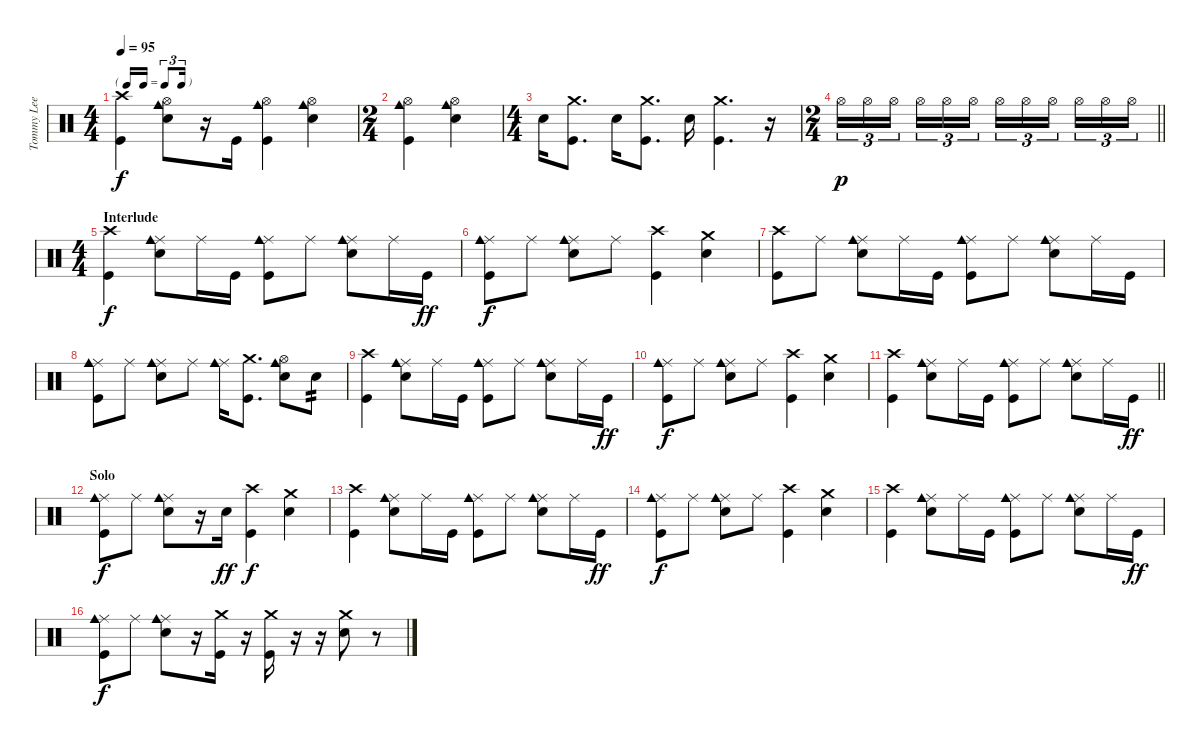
\track ("Tommy Lee" "Tommy Lee") {instrument percussion}
\staff {score}
\articulation defaults
\ts (4 4)
\tf triplet16th
\tempo 95
\clef neutral
\ks c
("Crash high (hit)" "Kick (hit)").4{dy f} ("Hi-Hat (open)" "Cowbell medium (hit)" "Snare (hit) 2").8 r.16 "Kick (hit)".16 ("Hi-Hat (open)" "Cowbell medium (hit)" "Kick (hit)").4 ("Hi-Hat (open)" "Cowbell medium (hit)" "Snare (hit) 2").4 |
\ts (2 4)
("Hi-Hat (open)" "Cowbell medium (hit)" "Kick (hit)").4 ("Hi-Hat (open)" "Cowbell medium (hit)" "Snare (hit) 2").4 |
\ts (4 4)
"Snare (hit) 2".16 ("Crash medium (hit)" "Kick (hit)").8{d} "Snare (hit) 2".16 ("Crash medium (hit)" "Kick (hit)").8{d} "Snare (hit) 2".16 ("Crash medium (hit)" "Kick (hit)").4{d} r.16 |
\ts (2 4)
\barLineRight lightlight "Hi-Hat (open)".16{tu (3 2) dy p} "Hi-Hat (open)".16{tu (3 2)} "Hi-Hat (open)".16{tu (3 2)} "Hi-Hat (open)".16{tu (3 2)} "Hi-Hat (open)".16{tu (3 2)} "Hi-Hat (open)".16{tu (3 2)} "Hi-Hat (open)".16{tu (3 2)} "Hi-Hat (open)".16{tu (3 2)} "Hi-Hat (open)".16{tu (3 2)} "Hi-Hat (open)".16{tu (3 2)} "Hi-Hat (open)".16{tu (3 2)} "Hi-Hat (open)".16{tu (3 2)}
|
\ts (4 4)
\section ("" "Interlude")
("Crash high (hit)" "Kick (hit)").4{dy f} ("Ride (middle)" "Cowbell medium (hit)" "Snare (hit) 2").8 "Ride (middle)".16 "Kick (hit)".16 ("Ride (middle)" "Cowbell medium (hit)" "Kick (hit)").8 "Ride (middle)".8 ("Ride (middle)" "Cowbell medium (hit)" "Snare (hit) 2").8 "Ride (middle)".16 "Kick (hit)".16{dy ff} |
("Ride (middle)" "Cowbell medium (hit)" "Kick (hit)").8{dy f} "Ride (middle)".8 ("Ride (middle)" "Cowbell medium (hit)" "Snare (hit) 2").8 "Ride (middle)".8 ("Crash high (hit)" "Kick (hit)").4 ("Crash medium (hit)" "Snare (hit) 2").4 |
("Crash high (hit)" "Kick (hit)").8 "Ride (middle)".8 ("Ride (middle)" "Cowbell medium (hit)" "Snare (hit) 2").8 "Ride (middle)".16 "Kick (hit)".16 ("Ride (middle)" "Cowbell medium (hit)" "Kick (hit)").8 "Ride (middle)".8 ("Ride (middle)" "Cowbell medium (hit)" "Snare (hit) 2").8 "Ride (middle)".16 "Kick (hit)".16 |
("Ride (middle)" "Cowbell medium (hit)" "Kick (hit)").8 "Ride (middle)".8 ("Ride (middle)" "Cowbell medium (hit)" "Snare (hit) 2").8 "Ride (middle)".8 ("Ride (middle)" "Cowbell medium (hit)").16 ("Crash medium (hit)" "Kick (hit)").8{d} ("Hi-Hat (open)" "Cowbell medium (hit)" "Snare (hit) 2").8 "Snare (hit) 2".8{tp 2} |
("Crash high (hit)" "Kick (hit)").4 ("Ride (middle)" "Cowbell medium (hit)" "Snare (hit) 2").8 "Ride (middle)".16 "Kick (hit)".16 ("Ride (middle)" "Cowbell medium (hit)" "Kick (hit)").8 "Ride (middle)".8 ("Ride (middle)" "Cowbell medium (hit)" "Snare (hit) 2").8 "Ride (middle)".16 "Kick (hit)".16{dy ff} |
("Ride (middle)" "Cowbell medium (hit)" "Kick (hit)").8{dy f} "Ride (middle)".8 ("Ride (middle)" "Cowbell medium (hit)" "Snare (hit) 2").8 "Ride (middle)".8 ("Crash high (hit)" "Kick (hit)").4 ("Crash medium (hit)" "Snare (hit) 2").4 |
\barLineRight lightlight
("Crash high (hit)" "Kick (hit)").4 ("Ride (middle)" "Cowbell medium (hit)" "Snare (hit) 2").8 "Ride (middle)".16 "Kick (hit)".16 ("Ride (middle)" "Cowbell medium (hit)" "Kick (hit)").8 "Ride (middle)".8 ("Ride (middle)" "Cowbell medium (hit)" "Snare (hit) 2").8 "Ride (middle)".16 "Kick (hit)".16{dy ff} |
\section ("" "Solo")
("Ride (middle)" "Cowbell medium (hit)" "Kick (hit)").8{dy f} "Ride (middle)".8 ("Ride (middle)" "Cowbell medium (hit)" "Snare (hit) 2").8 r.16 "Snare (hit) 2".16{dy ff} ("Crash high (hit)" "Kick (hit)").4{dy f} ("Crash medium (hit)" "Snare (hit) 2").4 |
("Crash high (hit)" "Kick (hit)").4 ("Ride (middle)" "Cowbell medium (hit)" "Snare (hit) 2").8 "Ride (middle)".16 "Kick (hit)".16 ("Ride (middle)" "Cowbell medium (hit)" "Kick (hit)").8 "Ride (middle)".8 ("Ride (middle)" "Cowbell medium (hit)" "Snare (hit) 2").8 "Ride (middle)".16 "Kick (hit)".16{dy ff} |
("Ride (middle)" "Cowbell medium (hit)" "Kick (hit)").8{dy f} "Ride (middle)".8 ("Ride (middle)" "Cowbell medium (hit)" "Snare (hit) 2").8 "Ride (middle)".8 ("Crash high (hit)" "Kick (hit)").4 ("Crash medium (hit)" "Snare (hit) 2").4 |
("Crash high (hit)" "Kick (hit)").4 ("Ride (middle)" "Cowbell medium (hit)" "Snare (hit) 2").8 "Ride (middle)".16 "Kick (hit)".16 ("Ride (middle)" "Cowbell medium (hit)" "Kick (hit)").8 "Ride (middle)".8 ("Ride (middle)" "Cowbell medium (hit)" "Snare (hit) 2").8 "Ride (middle)".16 "Kick (hit)".16{dy ff} |
("Ride (middle)" "Cowbell medium (hit)" "Kick (hit)").8{dy f} "Ride (middle)".8 ("Ride (middle)" "Cowbell medium (hit)" "Snare (hit) 2").8 r.16 ("Crash medium (hit)" "Kick (hit)").16 r.16 ("Crash medium (hit)" "Kick (hit)").16 r.16 r.16 ("Crash medium (hit)" "Snare (hit) 2").8 r.8
